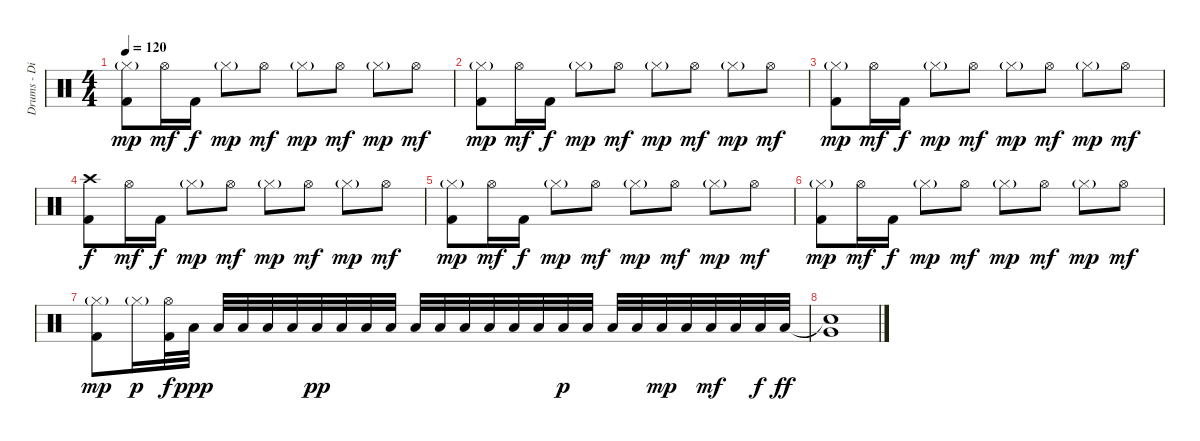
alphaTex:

\track ("Drums - Dino Campanella" "Drums - Di") {instrument percussion}
\staff {score}
\articulation defaults
\ts (4 4)
\tempo 120
\clef neutral
\ks c
("Hi-Hat (closed)"{g} "Kick (hit) 2").8{dy mp} "Hi-Hat (open)".16{dy mf} "Kick (hit) 2".16{dy f} "Hi-Hat (closed)"{g}.8{dy mp} "Hi-Hat (open)".8{dy mf} "Hi-Hat (closed)"{g}.8{dy mp} "Hi-Hat (open)".8{dy mf} "Hi-Hat (closed)"{g}.8{dy mp} "Hi-Hat (open)".8{dy mf} |
("Hi-Hat (closed)"{g} "Kick (hit) 2").8{dy mp} "Hi-Hat (open)".16{dy mf} "Kick (hit) 2".16{dy f} "Hi-Hat (closed)"{g}.8{dy mp} "Hi-Hat (open)".8{dy mf} "Hi-Hat (closed)"{g}.8{dy mp} "Hi-Hat (open)".8{dy mf} "Hi-Hat (closed)"{g}.8{dy mp} "Hi-Hat (open)".8{dy mf} |
("Hi-Hat (closed)"{g} "Kick (hit) 2").8{dy mp} "Hi-Hat (open)".16{dy mf} "Kick (hit) 2".16{dy f} "Hi-Hat (closed)"{g}.8{dy mp} "Hi-Hat (open)".8{dy mf} "Hi-Hat (closed)"{g}.8{dy mp} "Hi-Hat (open)".8{dy mf} "Hi-Hat (closed)"{g}.8{dy mp} "Hi-Hat (open)".8{dy mf} |
("Crash high (hit)" "Kick (hit) 2").8{dy f} "Hi-Hat (open)".16{dy mf} "Kick (hit) 2".16{dy f} "Hi-Hat (closed)"{g}.8{dy mp} "Hi-Hat (open)".8{dy mf} "Hi-Hat (closed)"{g}.8{dy mp} "Hi-Hat (open)".8{dy mf} "Hi-Hat (closed)"{g}.8{dy mp} "Hi-Hat (open)".8{dy mf} |
("Hi-Hat (closed)"{g} "Kick (hit) 2").8{dy mp} "Hi-Hat (open)".16{dy mf} "Kick (hit) 2".16{dy f} "Hi-Hat (closed)"{g}.8{dy mp} "Hi-Hat (open)".8{dy mf} "Hi-Hat (closed)"{g}.8{dy mp} "Hi-Hat (open)".8{dy mf} "Hi-Hat (closed)"{g}.8{dy mp} "Hi-Hat (open)".8{dy mf} |
("Hi-Hat (closed)"{g} "Kick (hit) 2").8{dy mp} "Hi-Hat (open)".16{dy mf} "Kick (hit) 2".16{dy f} "Hi-Hat (closed)"{g}.8{dy mp} "Hi-Hat (open)".8{dy mf} "Hi-Hat (closed)"{g}.8{dy mp} "Hi-Hat (open)".8{dy mf} "Hi-Hat (closed)"{g}.8{dy mp} "Hi-Hat (open)".8{dy mf} |
("Hi-Hat (closed)"{g} "Kick (hit) 2").8{dy mp} "Hi-Hat (closed)"{g}.16{dy p} ("Hi-Hat (open)" "Kick (hit) 2").32{dy f} "Low Floor Tom (hit)".32{dy ppp} "Low Floor Tom (hit)".32 "Low Floor Tom (hit)".32 "Low Floor Tom (hit)".32 "Low Floor Tom (hit)".32 "Low Floor Tom (hit)".32{dy pp} "Low Floor Tom (hit)".32 "Low Floor Tom (hit)".32 "Low Floor Tom (hit)".32 "Low Floor Tom (hit)".32 "Low Floor Tom (hit)".32 "Low Floor Tom (hit)".32 "Low Floor Tom (hit)".32 "Low Floor Tom (hit)".32 "Low Floor Tom (hit)".32 "Low Floor Tom (hit)".32{dy p} "Low Floor Tom (hit)".32 "Low Floor Tom (hit)".32 "Low Floor Tom (hit)".32 "Low Floor Tom (hit)".32{dy mp} "Low Floor Tom (hit)".32 "Low Floor Tom (hit)".32{dy mf} "Low Floor Tom (hit)".32 "Low Floor Tom (hit)".32{dy f} "Low Floor Tom (hit)".32{dy ff} |
("Snare (hit)"{t} "Very Low Tom (hit)").1
